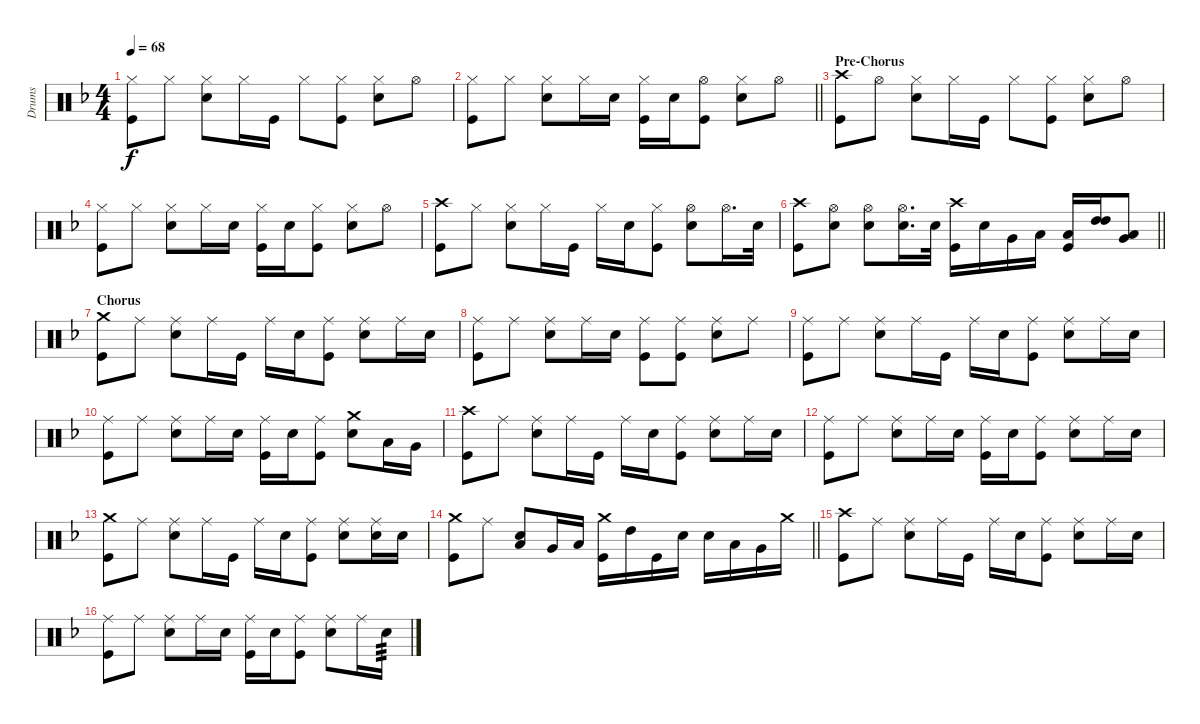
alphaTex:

\track ("Drums" "Drums") {instrument percussion}
\staff {score}
\articulation defaults
\ts (4 4)
\tempo 68
\clef neutral
\ks f
("Hi-Hat (closed)" "Kick (hit)").8{dy f} "Hi-Hat (closed)".8 ("Hi-Hat (closed)" "Snare (hit) 2").8 "Hi-Hat (closed)".16 "Kick (hit)".16 "Hi-Hat (closed)".8 ("Hi-Hat (closed)" "Kick (hit)").8 ("Hi-Hat (closed)" "Snare (hit) 2").8 "Hi-Hat (open)".8 |
\barLineRight lightlight
("Hi-Hat (closed)" "Kick (hit)").8 "Hi-Hat (closed)".8 ("Hi-Hat (closed)" "Snare (hit) 2").8 "Hi-Hat (closed)".16 "Snare (hit) 2".16 ("Hi-Hat (closed)" "Kick (hit)").16 "Snare (hit) 2".16 ("Hi-Hat (open)" "Kick (hit)").8 ("Hi-Hat (closed)" "Snare (hit) 2").8 "Hi-Hat (open)".8 |
\section ("" "Pre-Chorus")
("Crash high (hit)" "Kick (hit)").8 "Hi-Hat (open)".8 ("Hi-Hat (closed)" "Snare (hit) 2").8 "Hi-Hat (closed)".16 "Kick (hit)".16 "Hi-Hat (closed)".8 ("Hi-Hat (closed)" "Kick (hit)").8 ("Hi-Hat (closed)" "Snare (hit) 2").8 "Hi-Hat (open)".8 |
("Hi-Hat (closed)" "Kick (hit)").8 "Hi-Hat (closed)".8 ("Hi-Hat (closed)" "Snare (hit) 2").8 "Hi-Hat (closed)".16 "Snare (hit) 2".16 ("Hi-Hat (closed)" "Kick (hit)").16 "Snare (hit) 2".16 ("Hi-Hat (closed)" "Kick (hit)").8 ("Hi-Hat (closed)" "Snare (hit) 2").8 "Hi-Hat (open)".8 |
("Crash high (hit)" "Kick (hit)").8 "Hi-Hat (closed)".8 ("Hi-Hat (closed)" "Snare (hit) 2").8 "Hi-Hat (closed)".16 "Kick (hit)".16 "Hi-Hat (closed)".16 "Snare (hit) 2".16 ("Hi-Hat (closed)" "Kick (hit)").8 ("Hi-Hat (open)" "Snare (hit) 2").8 "Hi-Hat (open)".16{d} "Snare (hit) 2".32 |
\barLineRight lightlight
("Crash high (hit)" "Kick (hit)").8 ("Hi-Hat (open)" "Snare (hit) 2").8 ("Hi-Hat (open)" "Snare (hit) 2").8 ("Hi-Hat (open)" "Snare (hit) 2").16{d} "Snare (hit) 2".32 ("Crash high (hit)" "Kick (hit)").16 "Snare (hit) 2".16 "Very Low Tom (hit)".16 "Low Floor Tom (hit)".16 ("Low Floor Tom (hit)" "Kick (hit)").16 ("High Tom (hit)" "High Tom (hit)").16 ("Low Tom (hit)" "Very Low Tom (hit)").8 |
\section ("" "Chorus")
("Crash medium (hit)" "Kick (hit)").8 "Ride (middle)".8 ("Ride (middle)" "Snare (hit) 2").8 "Ride (middle)".16 "Kick (hit)".16 "Ride (middle)".16 "Snare (hit) 2".16 ("Ride (middle)" "Kick (hit)").8 ("Ride (middle)" "Snare (hit) 2").8 "Ride (middle)".16 "Snare (hit) 2".16 |
("Ride (middle)" "Kick (hit)").8 "Ride (middle)".8 ("Ride (middle)" "Snare (hit) 2").8 "Ride (middle)".16 "Snare (hit) 2".16 ("Ride (middle)" "Kick (hit)").8 ("Ride (middle)" "Kick (hit)").8 ("Ride (middle)" "Snare (hit) 2").8 "Ride (middle)".8 |
("Ride (middle)" "Kick (hit)").8 "Ride (middle)".8 ("Ride (middle)" "Snare (hit) 2").8 "Ride (middle)".16 "Kick (hit)".16 "Ride (middle)".16 "Snare (hit) 2".16 ("Ride (middle)" "Kick (hit)").8 ("Ride (middle)" "Snare (hit) 2").8 "Ride (middle)".16 "Snare (hit) 2".16 |
("Ride (middle)" "Kick (hit)").8 "Ride (middle)".8 ("Ride (middle)" "Snare (hit) 2").8 "Ride (middle)".16 "Snare (hit) 2".16 ("Ride (middle)" "Kick (hit)").16 "Snare (hit) 2".16 ("Ride (middle)" "Kick (hit)").8 ("Crash medium (hit)" "Snare (hit) 2").8 "Low Tom (hit)".16 "Very Low Tom (hit)".16 |
("Crash high (hit)" "Kick (hit)").8 "Ride (middle)".8 ("Ride (middle)" "Snare (hit) 2").8 "Ride (middle)".16 "Kick (hit)".16 "Ride (middle)".16 "Snare (hit) 2".16 ("Ride (middle)" "Kick (hit)").8 ("Ride (middle)" "Snare (hit) 2").8 "Ride (middle)".16 "Snare (hit) 2".16 |
("Ride (middle)" "Kick (hit)").8 "Ride (middle)".8 ("Ride (middle)" "Snare (hit) 2").8 "Ride (middle)".16 "Snare (hit) 2".16 ("Ride (middle)" "Kick (hit)").16 "Snare (hit) 2".16 ("Ride (middle)" "Kick (hit)").8 ("Ride (middle)" "Snare (hit) 2").8 "Ride (middle)".16 "Snare (hit) 2".16 |
("Crash medium (hit)" "Kick (hit)").8 "Ride (middle)".8 ("Ride (middle)" "Snare (hit) 2").8 "Ride (middle)".16 "Kick (hit)".16 "Ride (middle)".16 "Snare (hit) 2".16 ("Ride (middle)" "Kick (hit)").8 ("Ride (middle)" "Snare (hit) 2").8 ("Ride (middle)" "Snare (hit) 2").16 "Snare (hit) 2".16 |
\barLineRight lightlight
("Crash medium (hit)" "Kick (hit)").8 "Ride (middle)".8 ("Snare (hit) 2" "Low Tom (hit)").8 "Very Low Tom (hit)".16 "Low Floor Tom (hit)".16 ("Crash medium (hit)" "Kick (hit)").16 "High Tom (hit)".16 "Kick (hit)".16 "Snare (hit) 2".16 "Snare (hit) 2".16 "Low Tom (hit)".16 "Very Low Tom (hit)".16 "Crash medium (hit)".16 |
\section ("" " ")
("Crash high (hit)" "Kick (hit)").8 "Ride (middle)".8 ("Ride (middle)" "Snare (hit) 2").8 "Ride (middle)".16 "Kick (hit)".16 "Ride (middle)".16 "Snare (hit) 2".16 ("Ride (middle)" "Kick (hit)").8 ("Ride (middle)" "Snare (hit) 2").8 "Ride (middle)".16 "Snare (hit) 2".16 |
("Ride (middle)" "Kick (hit)").8 "Ride (middle)".8 ("Ride (middle)" "Snare (hit) 2").8 "Ride (middle)".16 "Snare (hit) 2".16 ("Ride (middle)" "Kick (hit)").16 "Snare (hit) 2".16 ("Ride (middle)" "Kick (hit)").8 ("Ride (middle)" "Snare (hit) 2").8 "Ride (middle)".16 "Snare (hit) 2".16{tp 3}
